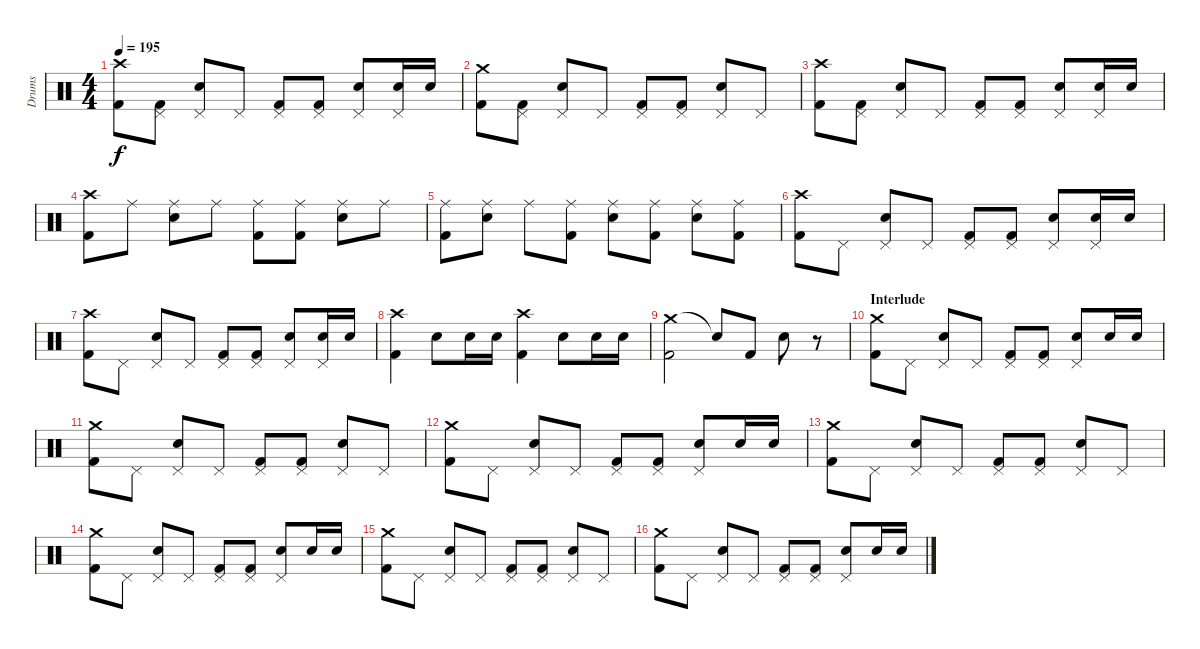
\track ("Drums" "Drums") {instrument percussion}
\staff {score}
\articulation defaults
\ts (4 4)
\tempo 195
\clef neutral
\ks c
("Crash high (hit)" "Kick (hit) 2").8{dy f} ("Pedal Hi-Hat (hit)" "Kick (hit) 2").8 ("Pedal Hi-Hat (hit)" "Electric Snare (hit)").8 "Pedal Hi-Hat (hit)".8 ("Pedal Hi-Hat (hit)" "Kick (hit) 2").8 ("Pedal Hi-Hat (hit)" "Kick (hit) 2").8 ("Pedal Hi-Hat (hit)" "Electric Snare (hit)").8 ("Pedal Hi-Hat (hit)" "Electric Snare (hit)").16 "Electric Snare (hit)".16 |
("Crash medium (hit)" "Kick (hit) 2").8 ("Pedal Hi-Hat (hit)" "Kick (hit) 2").8 ("Pedal Hi-Hat (hit)" "Electric Snare (hit)").8 "Pedal Hi-Hat (hit)".8 ("Pedal Hi-Hat (hit)" "Kick (hit) 2").8 ("Pedal Hi-Hat (hit)" "Kick (hit) 2").8 ("Pedal Hi-Hat (hit)" "Electric Snare (hit)").8 "Pedal Hi-Hat (hit)".8 |
("Crash high (hit)" "Kick (hit) 2").8 ("Pedal Hi-Hat (hit)" "Kick (hit) 2").8 ("Pedal Hi-Hat (hit)" "Electric Snare (hit)").8 "Pedal Hi-Hat (hit)".8 ("Pedal Hi-Hat (hit)" "Kick (hit) 2").8 ("Pedal Hi-Hat (hit)" "Kick (hit) 2").8 ("Pedal Hi-Hat (hit)" "Electric Snare (hit)").8 ("Pedal Hi-Hat (hit)" "Electric Snare (hit)").16 "Electric Snare (hit)".16 |
("Crash high (hit)" "Kick (hit) 2").8 "Ride (middle)".8 ("Ride (middle)" "Electric Snare (hit)").8 "Ride (middle)".8 ("Ride (middle)" "Kick (hit) 2").8 ("Ride (middle)" "Kick (hit) 2").8 ("Ride (middle)" "Electric Snare (hit)").8 "Ride (middle)".8 |
("Ride (middle)" "Kick (hit) 2").8 ("Ride (middle)" "Electric Snare (hit)").8 "Ride (middle)".8 ("Ride (middle)" "Kick (hit) 2").8 ("Ride (middle)" "Electric Snare (hit)").8 ("Ride (middle)" "Kick (hit) 2").8 ("Ride (middle)" "Electric Snare (hit)").8 ("Ride (middle)" "Kick (hit) 2").8 |
("Crash high (hit)" "Kick (hit) 2").8 "Pedal Hi-Hat (hit)".8 ("Pedal Hi-Hat (hit)" "Electric Snare (hit)").8 "Pedal Hi-Hat (hit)".8 ("Pedal Hi-Hat (hit)" "Kick (hit) 2").8 ("Pedal Hi-Hat (hit)" "Kick (hit) 2").8 ("Pedal Hi-Hat (hit)" "Electric Snare (hit)").8 ("Pedal Hi-Hat (hit)" "Electric Snare (hit)").16 "Electric Snare (hit)".16 |
("Crash high (hit)" "Kick (hit) 2").8 "Pedal Hi-Hat (hit)".8 ("Pedal Hi-Hat (hit)" "Electric Snare (hit)").8 "Pedal Hi-Hat (hit)".8 ("Pedal Hi-Hat (hit)" "Kick (hit) 2").8 ("Pedal Hi-Hat (hit)" "Kick (hit) 2").8 ("Pedal Hi-Hat (hit)" "Electric Snare (hit)").8 ("Pedal Hi-Hat (hit)" "Electric Snare (hit)").16 "Electric Snare (hit)".16 |
("Crash high (hit)" "Kick (hit) 2").4 "Electric Snare (hit)".8 "Electric Snare (hit)".16 "Electric Snare (hit)".16 ("Crash high (hit)" "Kick (hit) 2").4 "Electric Snare (hit)".8 "Electric Snare (hit)".16 "Electric Snare (hit)".16 |
("Crash medium (hit)" "Kick (hit) 2").2 "Snare (hit)"{t}.8 "Kick (hit) 2".8 "Electric Snare (hit)".8 r.8 |
\section ("" "Interlude")
("Crash medium (hit)" "Kick (hit) 2").8 "Pedal Hi-Hat (hit)".8 ("Pedal Hi-Hat (hit)" "Electric Snare (hit)").8 "Pedal Hi-Hat (hit)".8 ("Pedal Hi-Hat (hit)" "Kick (hit) 2").8 ("Pedal Hi-Hat (hit)" "Kick (hit) 2").8 ("Pedal Hi-Hat (hit)" "Electric Snare (hit)").8 "Electric Snare (hit)".16 "Electric Snare (hit)".16 |
("Crash medium (hit)" "Kick (hit) 2").8 "Pedal Hi-Hat (hit)".8 ("Pedal Hi-Hat (hit)" "Electric Snare (hit)").8 "Pedal Hi-Hat (hit)".8 ("Pedal Hi-Hat (hit)" "Kick (hit) 2").8 ("Pedal Hi-Hat (hit)" "Kick (hit) 2").8 ("Pedal Hi-Hat (hit)" "Electric Snare (hit)").8 "Pedal Hi-Hat (hit)".8 |
("Crash medium (hit)" "Kick (hit) 2").8 "Pedal Hi-Hat (hit)".8 ("Pedal Hi-Hat (hit)" "Electric Snare (hit)").8 "Pedal Hi-Hat (hit)".8 ("Pedal Hi-Hat (hit)" "Kick (hit) 2").8 ("Pedal Hi-Hat (hit)" "Kick (hit) 2").8 ("Pedal Hi-Hat (hit)" "Electric Snare (hit)").8 "Electric Snare (hit)".16 "Electric Snare (hit)".16 |
("Crash medium (hit)" "Kick (hit) 2").8 "Pedal Hi-Hat (hit)".8 ("Pedal Hi-Hat (hit)" "Electric Snare (hit)").8 "Pedal Hi-Hat (hit)".8 ("Pedal Hi-Hat (hit)" "Kick (hit) 2").8 ("Pedal Hi-Hat (hit)" "Kick (hit) 2").8 ("Pedal Hi-Hat (hit)" "Electric Snare (hit)").8 "Pedal Hi-Hat (hit)".8 |
("Crash medium (hit)" "Kick (hit) 2").8 "Pedal Hi-Hat (hit)".8 ("Pedal Hi-Hat (hit)" "Electric Snare (hit)").8 "Pedal Hi-Hat (hit)".8 ("Pedal Hi-Hat (hit)" "Kick (hit) 2").8 ("Pedal Hi-Hat (hit)" "Kick (hit) 2").8 ("Pedal Hi-Hat (hit)" "Electric Snare (hit)").8 "Electric Snare (hit)".16 "Electric Snare (hit)".16 |
("Crash medium (hit)" "Kick (hit) 2").8 "Pedal Hi-Hat (hit)".8 ("Pedal Hi-Hat (hit)" "Electric Snare (hit)").8 "Pedal Hi-Hat (hit)".8 ("Pedal Hi-Hat (hit)" "Kick (hit) 2").8 ("Pedal Hi-Hat (hit)" "Kick (hit) 2").8 ("Pedal Hi-Hat (hit)" "Electric Snare (hit)").8 "Pedal Hi-Hat (hit)".8 |
("Crash medium (hit)" "Kick (hit) 2").8 "Pedal Hi-Hat (hit)".8 ("Pedal Hi-Hat (hit)" "Electric Snare (hit)").8 "Pedal Hi-Hat (hit)".8 ("Pedal Hi-Hat (hit)" "Kick (hit) 2").8 ("Pedal Hi-Hat (hit)" "Kick (hit) 2").8 ("Pedal Hi-Hat (hit)" "Electric Snare (hit)").8 "Electric Snare (hit)".16 "Electric Snare (hit)".16
